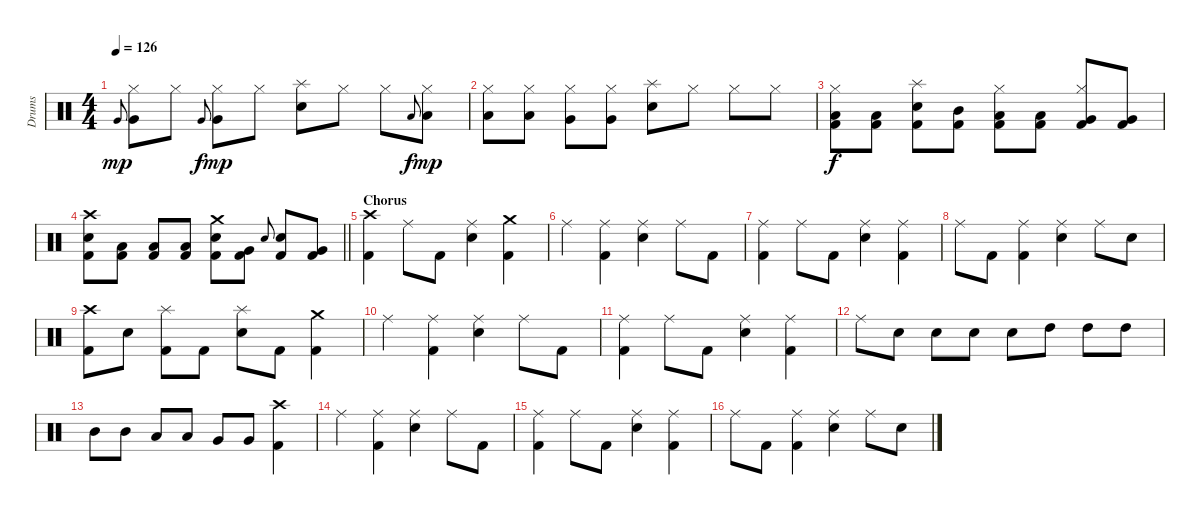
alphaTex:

\track ("Drums" "Drums") {instrument percussion}
\staff {score}
\articulation defaults
\ts (4 4)
\tempo 126
\clef neutral
\ks c "Very Low Tom (hit)".8{gr onbeat dy mp}
("Hi-Hat (closed)" "Very Low Tom (hit)").8 "Hi-Hat (closed)".8 "Very Low Tom (hit)".8{gr onbeat dy f} ("Hi-Hat (closed)" "Very Low Tom (hit)").8{dy mp} "Hi-Hat (closed)".8 ("Splash (hit)" "Snare (hit) 2").8 "Hi-Hat (closed)".8 "Hi-Hat (closed)".8 "Low Tom (hit)".8{gr onbeat dy f} ("Hi-Hat (closed)" "Low Tom (hit)").8{dy mp} |
("Hi-Hat (closed)" "Low Tom (hit)").8 ("Hi-Hat (closed)" "Low Tom (hit)").8 ("Hi-Hat (closed)" "Very Low Tom (hit)").8 ("Hi-Hat (closed)" "Very Low Tom (hit)").8 ("Splash (hit)" "Snare (hit) 2").8 "Hi-Hat (closed)".8 "Hi-Hat (closed)".8 "Hi-Hat (closed)".8 |
("Hi-Hat (closed)" "Low Tom (hit)" "Kick (hit) 2").8{dy f} ("Low Tom (hit)" "Kick (hit) 2").8 ("Splash (hit)" "Snare (hit) 2" "Kick (hit) 2").8 ("Mid Tom (hit)" "Kick (hit) 2").8 ("Hi-Hat (closed)" "Low Tom (hit)" "Kick (hit) 2").8 ("Low Tom (hit)" "Kick (hit) 2").8 ("Hi-Hat (closed)" "Very Low Tom (hit)" "Kick (hit) 2").8 ("Very Low Tom (hit)" "Kick (hit) 2").8 |
\barLineRight lightlight
("Crash high (hit)" "Snare (hit) 2" "Kick (hit) 2").8 ("Low Tom (hit)" "Kick (hit) 2").8 ("Low Tom (hit)" "Kick (hit) 2").8 ("Low Tom (hit)" "Kick (hit) 2").8 ("Crash medium (hit)" "Snare (hit) 2" "Kick (hit) 2").8 ("Very Low Tom (hit)" "Kick (hit) 2").8 "Snare (hit) 2".8{gr onbeat} ("Snare (hit) 2" "Kick (hit) 2").8 ("Very Low Tom (hit)" "Kick (hit) 2").8 |
\section ("" "Chorus")
("Crash high (hit)" "Kick (hit) 2").4 "Ride (middle)".8 "Kick (hit) 2".8 ("Ride (middle)" "Snare (hit) 2").4 ("Crash medium (hit)" "Kick (hit) 2").4 |
"Ride (middle)".4 ("Ride (middle)" "Kick (hit) 2").4 ("Ride (middle)" "Snare (hit) 2").4 "Ride (middle)".8 "Kick (hit) 2".8 |
("Ride (middle)" "Kick (hit) 2").4 "Ride (middle)".8 "Kick (hit) 2".8 ("Ride (middle)" "Snare (hit) 2").4 ("Ride (middle)" "Kick (hit) 2").4 |
"Ride (middle)".8 "Kick (hit) 2".8 ("Ride (middle)" "Kick (hit) 2").4 ("Ride (middle)" "Snare (hit) 2").4 "Ride (middle)".8 "Snare (hit) 2".8 |
("Crash high (hit)" "Kick (hit) 2").8 "Snare (hit) 2".8 ("Splash (hit)" "Kick (hit) 2").8 "Kick (hit) 2".8 ("Splash (hit)" "Snare (hit) 2").8 "Kick (hit) 2".8 ("Crash medium (hit)" "Kick (hit) 2").4 |
"Ride (middle)".4 ("Ride (middle)" "Kick (hit) 2").4 ("Ride (middle)" "Snare (hit) 2").4 "Ride (middle)".8 "Kick (hit) 2".8 |
("Ride (middle)" "Kick (hit) 2").4 "Ride (middle)".8 "Kick (hit) 2".8 ("Ride (middle)" "Snare (hit) 2").4 ("Ride (middle)" "Kick (hit) 2").4 |
"Ride (middle)".8 "Snare (hit) 2".8 "Snare (hit) 2".8 "Snare (hit) 2".8 "Snare (hit) 2".8 "High Tom (hit)".8 "High Tom (hit)".8 "High Tom (hit)".8 |
"Mid Tom (hit)".8 "Mid Tom (hit)".8 "Low Tom (hit)".8 "Low Tom (hit)".8 "Very Low Tom (hit)".8 "Very Low Tom (hit)".8 ("Crash high (hit)" "Kick (hit) 2").4 |
"Ride (middle)".4 ("Ride (middle)" "Kick (hit) 2").4 ("Ride (middle)" "Snare (hit) 2").4 "Ride (middle)".8 "Kick (hit) 2".8 |
("Ride (middle)" "Kick (hit) 2").4 "Ride (middle)".8 "Kick (hit) 2".8 ("Ride (middle)" "Snare (hit) 2").4 ("Ride (middle)" "Kick (hit) 2").4 |
"Ride (middle)".8 "Kick (hit) 2".8 ("Ride (middle)" "Kick (hit) 2").4 ("Ride (middle)" "Snare (hit) 2").4 "Ride (middle)".8 "Snare (hit) 2".8
